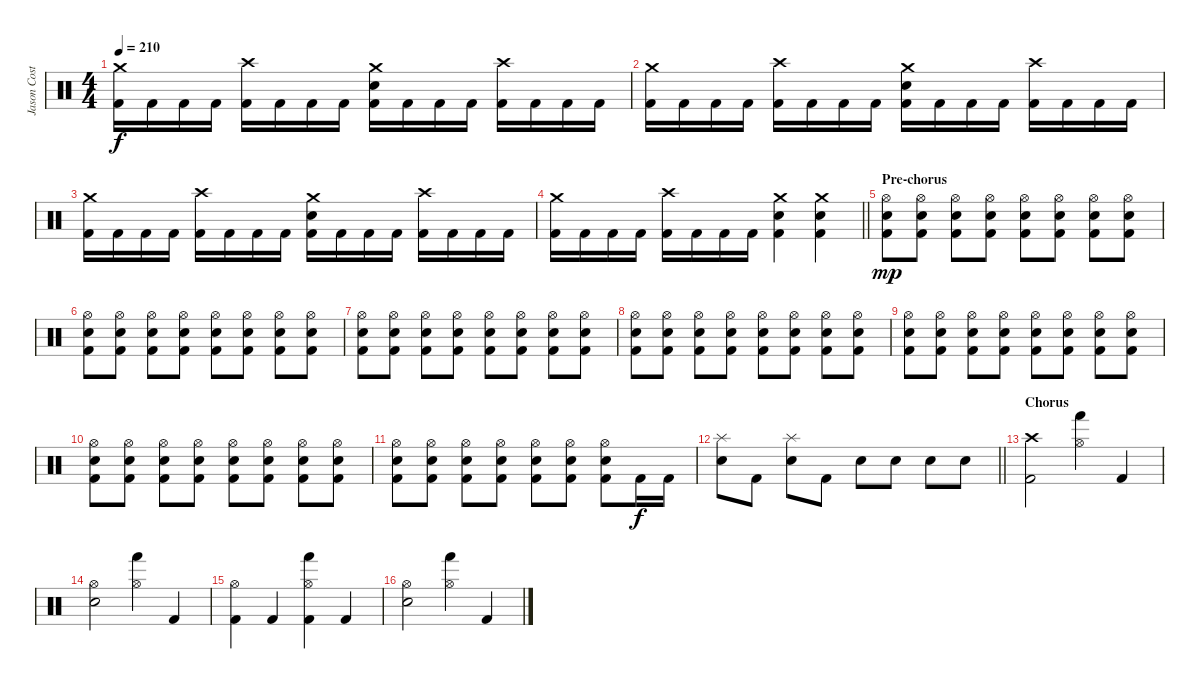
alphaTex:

\track ("Jason Costa" "Jason Cost") {instrument percussion}
\staff {score}
\articulation defaults
\ts (4 4)
\tempo 210
\clef neutral
\ks c
("Crash medium (hit)" "Kick (hit) 2").16{dy f} "Kick (hit) 2".16 "Kick (hit) 2".16 "Kick (hit) 2".16 ("Crash high (hit)" "Kick (hit) 2").16 "Kick (hit) 2".16 "Kick (hit) 2".16 "Kick (hit) 2".16 ("Crash medium (hit)" "Electric Snare (hit)" "Kick (hit) 2").16 "Kick (hit) 2".16 "Kick (hit) 2".16 "Kick (hit) 2".16 ("Crash high (hit)" "Kick (hit) 2").16 "Kick (hit) 2".16 "Kick (hit) 2".16 "Kick (hit) 2".16 |
("Crash medium (hit)" "Kick (hit) 2").16 "Kick (hit) 2".16 "Kick (hit) 2".16 "Kick (hit) 2".16 ("Crash high (hit)" "Kick (hit) 2").16 "Kick (hit) 2".16 "Kick (hit) 2".16 "Kick (hit) 2".16 ("Crash medium (hit)" "Electric Snare (hit)" "Kick (hit) 2").16 "Kick (hit) 2".16 "Kick (hit) 2".16 "Kick (hit) 2".16 ("Crash high (hit)" "Kick (hit) 2").16 "Kick (hit) 2".16 "Kick (hit) 2".16 "Kick (hit) 2".16 |
("Crash medium (hit)" "Kick (hit) 2").16 "Kick (hit) 2".16 "Kick (hit) 2".16 "Kick (hit) 2".16 ("Crash high (hit)" "Kick (hit) 2").16 "Kick (hit) 2".16 "Kick (hit) 2".16 "Kick (hit) 2".16 ("Crash medium (hit)" "Electric Snare (hit)" "Kick (hit) 2").16 "Kick (hit) 2".16 "Kick (hit) 2".16 "Kick (hit) 2".16 ("Crash high (hit)" "Kick (hit) 2").16 "Kick (hit) 2".16 "Kick (hit) 2".16 "Kick (hit) 2".16 |
\barLineRight lightlight
("Crash medium (hit)" "Kick (hit) 2").16 "Kick (hit) 2".16 "Kick (hit) 2".16 "Kick (hit) 2".16 ("Crash high (hit)" "Kick (hit) 2").16 "Kick (hit) 2".16 "Kick (hit) 2".16 "Kick (hit) 2".16 ("Crash medium (hit)" "Electric Snare (hit)" "Kick (hit) 2").4 ("Crash medium (hit)" "Electric Snare (hit)" "Kick (hit) 2").4 |
\section ("" "Pre-chorus")
("Hi-Hat (open)" "Electric Snare (hit)" "Kick (hit) 2").8{dy mp} ("Hi-Hat (open)" "Electric Snare (hit)" "Kick (hit) 2").8 ("Hi-Hat (open)" "Electric Snare (hit)" "Kick (hit) 2").8 ("Hi-Hat (open)" "Electric Snare (hit)" "Kick (hit) 2").8 ("Hi-Hat (open)" "Electric Snare (hit)" "Kick (hit) 2").8 ("Hi-Hat (open)" "Electric Snare (hit)" "Kick (hit) 2").8 ("Hi-Hat (open)" "Electric Snare (hit)" "Kick (hit) 2").8 ("Hi-Hat (open)" "Electric Snare (hit)" "Kick (hit) 2").8 |
("Hi-Hat (open)" "Electric Snare (hit)" "Kick (hit) 2").8 ("Hi-Hat (open)" "Electric Snare (hit)" "Kick (hit) 2").8 ("Hi-Hat (open)" "Electric Snare (hit)" "Kick (hit) 2").8 ("Hi-Hat (open)" "Electric Snare (hit)" "Kick (hit) 2").8 ("Hi-Hat (open)" "Electric Snare (hit)" "Kick (hit) 2").8 ("Hi-Hat (open)" "Electric Snare (hit)" "Kick (hit) 2").8 ("Hi-Hat (open)" "Electric Snare (hit)" "Kick (hit) 2").8 ("Hi-Hat (open)" "Electric Snare (hit)" "Kick (hit) 2").8 |
("Hi-Hat (open)" "Electric Snare (hit)" "Kick (hit) 2").8 ("Hi-Hat (open)" "Electric Snare (hit)" "Kick (hit) 2").8 ("Hi-Hat (open)" "Electric Snare (hit)" "Kick (hit) 2").8 ("Hi-Hat (open)" "Electric Snare (hit)" "Kick (hit) 2").8 ("Hi-Hat (open)" "Electric Snare (hit)" "Kick (hit) 2").8 ("Hi-Hat (open)" "Electric Snare (hit)" "Kick (hit) 2").8 ("Hi-Hat (open)" "Electric Snare (hit)" "Kick (hit) 2").8 ("Hi-Hat (open)" "Electric Snare (hit)" "Kick (hit) 2").8 |
("Hi-Hat (open)" "Electric Snare (hit)" "Kick (hit) 2").8 ("Hi-Hat (open)" "Electric Snare (hit)" "Kick (hit) 2").8 ("Hi-Hat (open)" "Electric Snare (hit)" "Kick (hit) 2").8 ("Hi-Hat (open)" "Electric Snare (hit)" "Kick (hit) 2").8 ("Hi-Hat (open)" "Electric Snare (hit)" "Kick (hit) 2").8 ("Hi-Hat (open)" "Electric Snare (hit)" "Kick (hit) 2").8 ("Hi-Hat (open)" "Electric Snare (hit)" "Kick (hit) 2").8 ("Hi-Hat (open)" "Electric Snare (hit)" "Kick (hit) 2").8 |
("Hi-Hat (open)" "Electric Snare (hit)" "Kick (hit) 2").8 ("Hi-Hat (open)" "Electric Snare (hit)" "Kick (hit) 2").8 ("Hi-Hat (open)" "Electric Snare (hit)" "Kick (hit) 2").8 ("Hi-Hat (open)" "Electric Snare (hit)" "Kick (hit) 2").8 ("Hi-Hat (open)" "Electric Snare (hit)" "Kick (hit) 2").8 ("Hi-Hat (open)" "Electric Snare (hit)" "Kick (hit) 2").8 ("Hi-Hat (open)" "Electric Snare (hit)" "Kick (hit) 2").8 ("Hi-Hat (open)" "Electric Snare (hit)" "Kick (hit) 2").8 |
("Hi-Hat (open)" "Electric Snare (hit)" "Kick (hit) 2").8 ("Hi-Hat (open)" "Electric Snare (hit)" "Kick (hit) 2").8 ("Hi-Hat (open)" "Electric Snare (hit)" "Kick (hit) 2").8 ("Hi-Hat (open)" "Electric Snare (hit)" "Kick (hit) 2").8 ("Hi-Hat (open)" "Electric Snare (hit)" "Kick (hit) 2").8 ("Hi-Hat (open)" "Electric Snare (hit)" "Kick (hit) 2").8 ("Hi-Hat (open)" "Electric Snare (hit)" "Kick (hit) 2").8 ("Hi-Hat (open)" "Electric Snare (hit)" "Kick (hit) 2").8 |
("Hi-Hat (open)" "Electric Snare (hit)" "Kick (hit) 2").8 ("Hi-Hat (open)" "Electric Snare (hit)" "Kick (hit) 2").8 ("Hi-Hat (open)" "Electric Snare (hit)" "Kick (hit) 2").8 ("Hi-Hat (open)" "Electric Snare (hit)" "Kick (hit) 2").8 ("Hi-Hat (open)" "Electric Snare (hit)" "Kick (hit) 2").8 ("Hi-Hat (open)" "Electric Snare (hit)" "Kick (hit) 2").8 ("Hi-Hat (open)" "Electric Snare (hit)" "Kick (hit) 2").8 "Kick (hit) 2".16{dy f} "Kick (hit) 2".16 |
\barLineRight lightlight
("Splash (hit)" "Electric Snare (hit)").8 "Kick (hit) 2".8 ("Splash (hit)" "Electric Snare (hit)").8 "Kick (hit) 2".8 "Electric Snare (hit)".8 "Electric Snare (hit)".8 "Electric Snare (hit)".8 "Electric Snare (hit)".8 |
\section ("" "Chorus")
("Crash high (hit)" "Kick (hit) 2").2 ("Hi-Hat (open)" "Hand (hit)").4 "Kick (hit) 2".4 |
("Hi-Hat (open)" "Electric Snare (hit)").2 ("Hi-Hat (open)" "Hand (hit)").4 "Kick (hit) 2".4 |
("Hi-Hat (open)" "Kick (hit) 2").4 "Kick (hit) 2".4 ("Hi-Hat (open)" "Hand (hit)" "Kick (hit) 2").4 "Kick (hit) 2".4 |
("Hi-Hat (open)" "Electric Snare (hit)").2 ("Hi-Hat (open)" "Hand (hit)").4 "Kick (hit) 2".4
